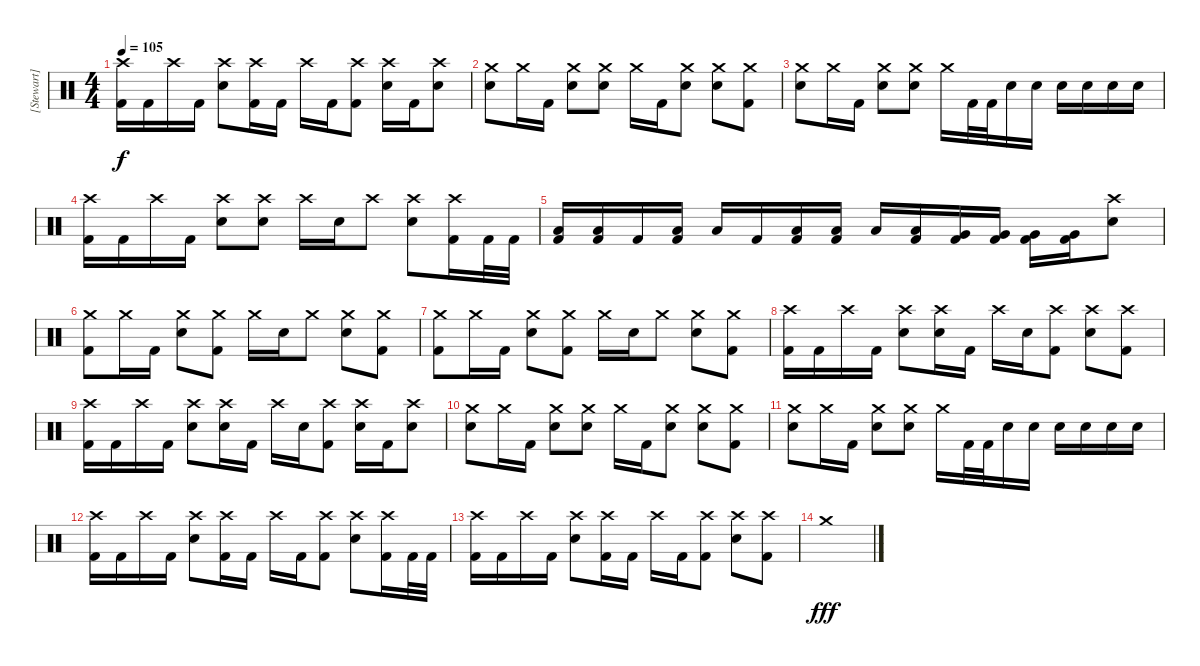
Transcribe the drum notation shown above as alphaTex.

\track ("[Stewart]" "[Stewart]") {instrument percussion}
\staff {score}
\articulation defaults
\ts (4 4)
\tempo 105
\clef neutral
\ks c
("Crash high (hit)" "Kick (hit) 2").16{dy f} "Kick (hit) 2".16 "Crash high (hit)".16 "Kick (hit) 2".16 ("Crash high (hit)" "Electric Snare (hit)").8 ("Crash high (hit)" "Kick (hit) 2").16 "Kick (hit) 2".16 "Crash high (hit)".16 "Kick (hit) 2".16 ("Crash high (hit)" "Kick (hit) 2").8 ("Crash high (hit)" "Electric Snare (hit)").16 "Kick (hit) 2".16 ("Crash high (hit)" "Electric Snare (hit)").8 |
("Crash medium (hit)" "Electric Snare (hit)").8 "Crash medium (hit)".16 "Kick (hit) 2".16 ("Crash medium (hit)" "Electric Snare (hit)").8 ("Crash medium (hit)" "Electric Snare (hit)").8 "Crash medium (hit)".16 "Kick (hit) 2".16 ("Crash medium (hit)" "Electric Snare (hit)").8 ("Crash medium (hit)" "Electric Snare (hit)").8 ("Crash medium (hit)" "Kick (hit) 2").8 |
("Crash medium (hit)" "Electric Snare (hit)").8 "Crash medium (hit)".16 "Kick (hit) 2".16 ("Crash medium (hit)" "Electric Snare (hit)").8 ("Crash medium (hit)" "Electric Snare (hit)").8 "Crash medium (hit)".16 "Kick (hit) 2".32 "Kick (hit) 2".32 "Electric Snare (hit)".16 "Electric Snare (hit)".16 "Electric Snare (hit)".16 "Electric Snare (hit)".16 "Electric Snare (hit)".16 "Electric Snare (hit)".16 |
("Crash high (hit)" "Kick (hit) 2").16 "Kick (hit) 2".16 "Crash high (hit)".16 "Kick (hit) 2".16 ("Crash high (hit)" "Electric Snare (hit)").8 ("Crash high (hit)" "Electric Snare (hit)").8 "Crash high (hit)".16 "Electric Snare (hit)".16 "Crash high (hit)".8 ("Crash high (hit)" "Electric Snare (hit)").8 ("Crash high (hit)" "Kick (hit) 2").16 "Kick (hit) 2".32 "Kick (hit) 2".32 |
("Low Tom (hit)" "Kick (hit) 2").16 ("Low Tom (hit)" "Kick (hit) 2").16 "Kick (hit) 2".16 ("Low Tom (hit)" "Kick (hit) 2").16 "Low Tom (hit)".16 "Kick (hit) 2".16 ("Low Tom (hit)" "Kick (hit) 2").16 ("Low Tom (hit)" "Kick (hit) 2").16 "Low Tom (hit)".16 ("Low Tom (hit)" "Kick (hit) 2").16 ("Very Low Tom (hit)" "Kick (hit) 2").16 ("Very Low Tom (hit)" "Kick (hit) 2").16 ("Very Low Tom (hit)" "Kick (hit) 2").16 ("Very Low Tom (hit)" "Kick (hit) 2").16 ("Crash high (hit)" "Electric Snare (hit)").8 |
("Crash medium (hit)" "Kick (hit) 2").8 "Crash medium (hit)".16 "Kick (hit) 2".16 ("Crash medium (hit)" "Electric Snare (hit)").8 ("Crash medium (hit)" "Kick (hit) 2").8 "Crash medium (hit)".16 "Electric Snare (hit)".16 "Crash medium (hit)".8 ("Crash medium (hit)" "Electric Snare (hit)").8 ("Crash medium (hit)" "Kick (hit) 2").8 |
("Crash medium (hit)" "Kick (hit) 2").8 "Crash medium (hit)".16 "Kick (hit) 2".16 ("Crash medium (hit)" "Electric Snare (hit)").8 ("Crash medium (hit)" "Kick (hit) 2").8 "Crash medium (hit)".16 "Electric Snare (hit)".16 "Crash medium (hit)".8 ("Crash medium (hit)" "Electric Snare (hit)").8 ("Crash medium (hit)" "Kick (hit) 2").8 |
("Crash high (hit)" "Kick (hit) 2").16 "Kick (hit) 2".16 "Crash high (hit)".16 "Kick (hit) 2".16 ("Crash high (hit)" "Electric Snare (hit)").8 ("Crash high (hit)" "Electric Snare (hit)").16 "Kick (hit) 2".16 "Crash high (hit)".16 "Electric Snare (hit)".16 ("Crash high (hit)" "Kick (hit) 2").8 ("Crash high (hit)" "Electric Snare (hit)").8 ("Crash high (hit)" "Kick (hit) 2").8 |
("Crash high (hit)" "Kick (hit) 2").16 "Kick (hit) 2".16 "Crash high (hit)".16 "Kick (hit) 2".16 ("Crash high (hit)" "Electric Snare (hit)").8 ("Crash high (hit)" "Electric Snare (hit)").16 "Kick (hit) 2".16 "Crash high (hit)".16 "Electric Snare (hit)".16 ("Crash high (hit)" "Kick (hit) 2").8 ("Crash high (hit)" "Electric Snare (hit)").16 "Kick (hit) 2".16 ("Crash high (hit)" "Electric Snare (hit)").8 |
("Crash medium (hit)" "Electric Snare (hit)").8 "Crash medium (hit)".16 "Kick (hit) 2".16 ("Crash medium (hit)" "Electric Snare (hit)").8 ("Crash medium (hit)" "Electric Snare (hit)").8 "Crash medium (hit)".16 "Kick (hit) 2".16 ("Crash medium (hit)" "Electric Snare (hit)").8 ("Crash medium (hit)" "Electric Snare (hit)").8 ("Crash medium (hit)" "Kick (hit) 2").8 |
("Crash medium (hit)" "Electric Snare (hit)").8 "Crash medium (hit)".16 "Kick (hit) 2".16 ("Crash medium (hit)" "Electric Snare (hit)").8 ("Crash medium (hit)" "Electric Snare (hit)").8 "Crash medium (hit)".16 "Kick (hit) 2".32 "Kick (hit) 2".32 "Electric Snare (hit)".16 "Electric Snare (hit)".16 "Electric Snare (hit)".16 "Electric Snare (hit)".16 "Electric Snare (hit)".16 "Electric Snare (hit)".16 |
("Crash high (hit)" "Kick (hit) 2").16 "Kick (hit) 2".16 "Crash high (hit)".16 "Kick (hit) 2".16 ("Crash high (hit)" "Electric Snare (hit)").8 ("Crash high (hit)" "Kick (hit) 2").16 "Kick (hit) 2".16 "Crash high (hit)".16 "Kick (hit) 2".16 ("Crash high (hit)" "Kick (hit) 2").8 ("Crash high (hit)" "Electric Snare (hit)").8 ("Crash high (hit)" "Kick (hit) 2").16 "Kick (hit) 2".32 "Kick (hit) 2".32 |
("Crash high (hit)" "Kick (hit) 2").16 "Kick (hit) 2".16 "Crash high (hit)".16 "Kick (hit) 2".16 ("Crash high (hit)" "Electric Snare (hit)").8 ("Crash high (hit)" "Kick (hit) 2").16 "Kick (hit) 2".16 "Crash high (hit)".16 "Kick (hit) 2".16 ("Crash high (hit)" "Kick (hit) 2").8 ("Crash high (hit)" "Electric Snare (hit)").8 ("Crash high (hit)" "Kick (hit) 2").8 |
"Crash medium (hit)".1{dy fff}
